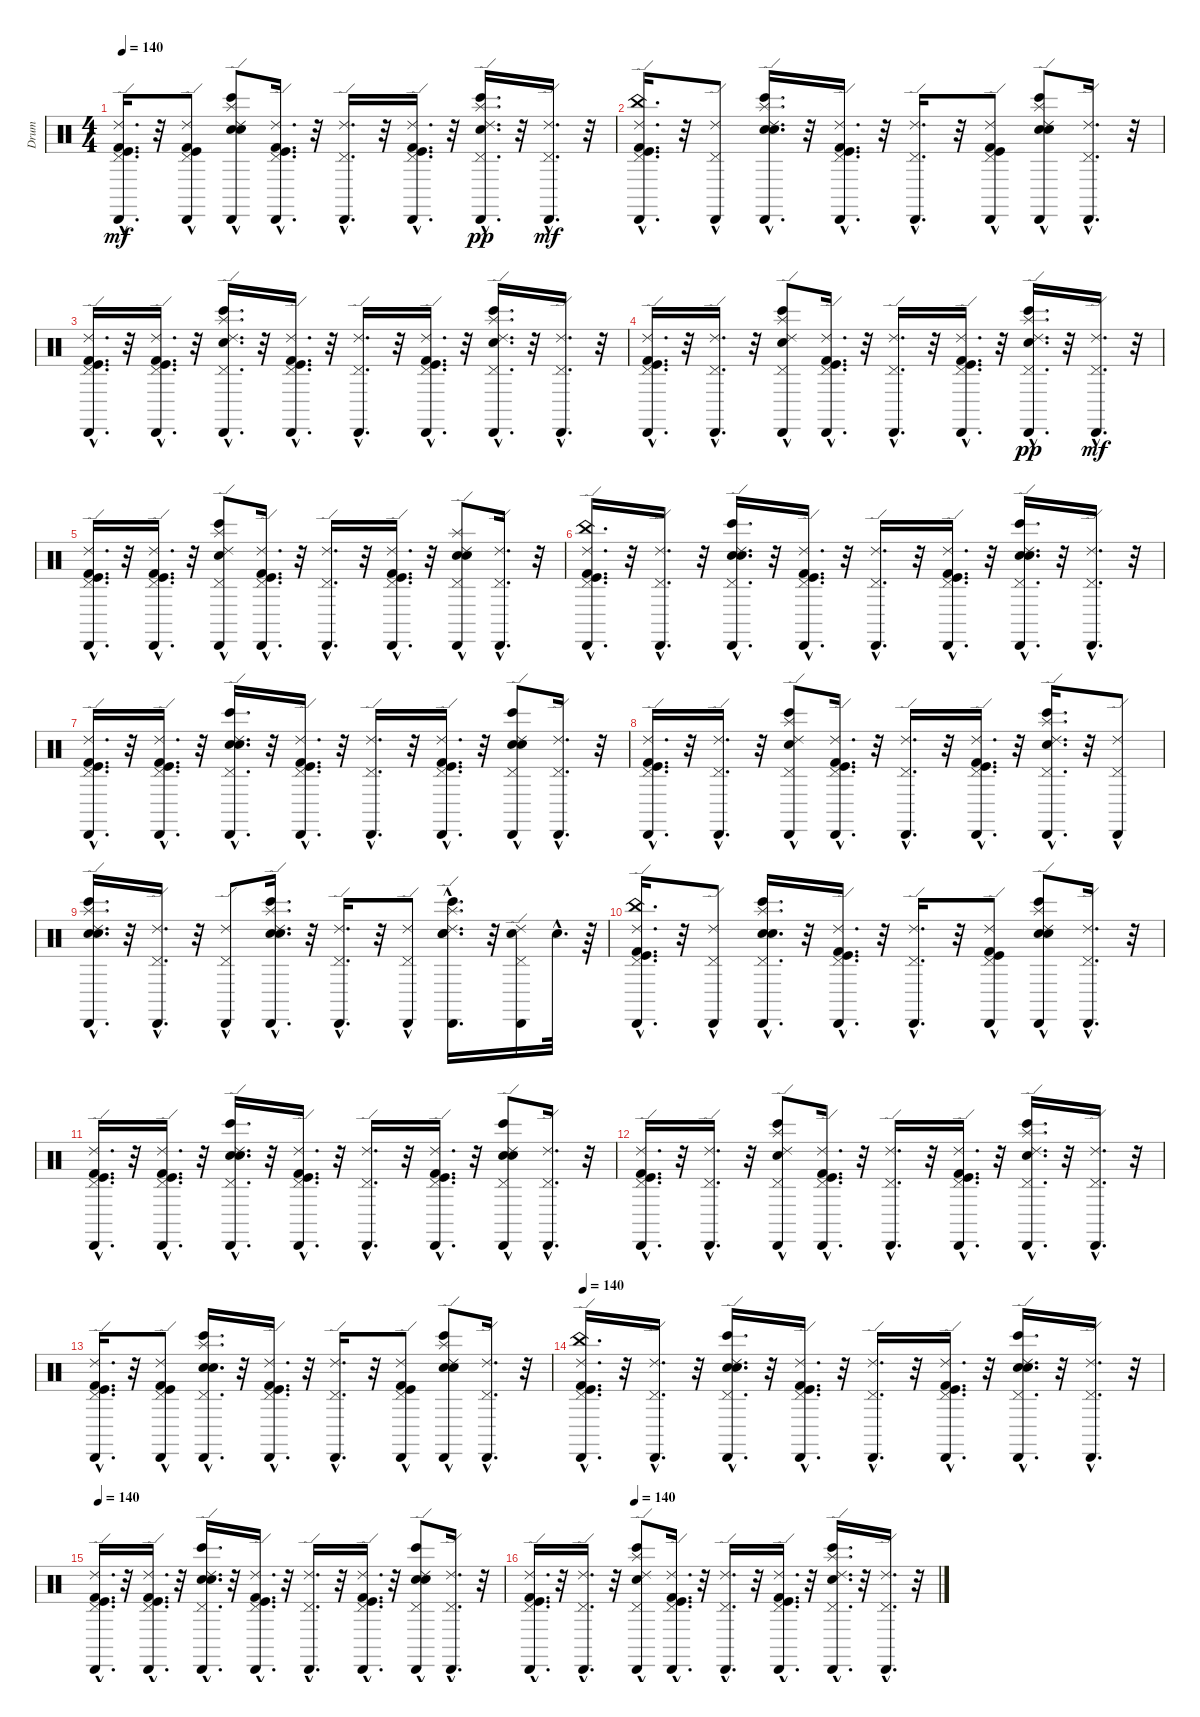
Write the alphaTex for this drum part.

\track ("Drum" "Drum") {instrument percussion}
\staff {score}
\articulation defaults
\ts (4 4)
\tempo 140
\clef neutral
\ks c
("Ride (edge) 2"{hac} "Kick (hit) 2"{hac} "Pedal Hi-Hat (hit)"{hac} "Cabasa (hit)"{hac} "Kick (hit)"{hac}).16{d dy mf} r.32 ("Cabasa (hit)"{hac} "Ride (edge) 2"{hac} "Kick (hit) 2"{hac} "Kick (hit)"{hac} "Pedal Hi-Hat (hit)"{hac}).8 ("Bongo High (hit)"{hac} "Splash (hit)"{hac} "Electric Snare (hit)"{hac} "Ride (edge) 2"{hac} "Cabasa (hit)"{hac} "Snare (hit) 2").8 ("Kick (hit) 2"{hac} "Cabasa (hit)"{hac} "Ride (edge) 2"{hac} "Pedal Hi-Hat (hit)"{hac} "Kick (hit)"{hac}).16{d} r.32 ("Pedal Hi-Hat (hit)"{hac} "Cabasa (hit)"{hac} "Ride (edge) 2"{hac}).16{d} r.32 ("Cabasa (hit)"{hac} "Kick (hit) 2"{hac} "Pedal Hi-Hat (hit)"{hac} "Ride (edge) 2"{hac} "Kick (hit)"{hac}).16{d} r.32 ("Electric Snare (hit)"{hac} "Cabasa (hit)"{hac} "Bongo High (hit)"{hac} "Pedal Hi-Hat (hit)"{hac} "Ride (edge) 2"{hac} "Splash (hit)"{hac}).16{d dy pp} r.32 ("Cabasa (hit)"{hac} "Pedal Hi-Hat (hit)"{hac} "Ride (edge) 2"{hac}).16{d dy mf} r.32 |
("China (hit)"{hac} "Cabasa (hit)"{hac} "Ride (edge) 2"{hac} "Kick (hit) 2"{hac} "Kick (hit)"{hac} "Pedal Hi-Hat (hit)"{hac}).16{d} r.32 ("Cabasa (hit)"{hac} "Ride (edge) 2"{hac} "Pedal Hi-Hat (hit)"{hac}).8 ("Splash (hit)"{hac} "Bongo High (hit)"{hac} "Electric Snare (hit)"{hac} "Cabasa (hit)"{hac} "Ride (edge) 2"{hac} "Snare (hit) 2"{hac}).16{d} r.32 ("Cabasa (hit)"{hac} "Ride (edge) 2"{hac} "Kick (hit) 2"{hac} "Kick (hit)"{hac} "Pedal Hi-Hat (hit)"{hac}).16{d} r.32 ("Cabasa (hit)"{hac} "Ride (edge) 2"{hac} "Pedal Hi-Hat (hit)"{hac}).16{d} r.32 ("Cabasa (hit)"{hac} "Ride (edge) 2"{hac} "Kick (hit) 2"{hac} "Kick (hit)"{hac} "Pedal Hi-Hat (hit)"{hac}).8 ("Splash (hit)"{hac} "Bongo High (hit)"{hac} "Electric Snare (hit)"{hac} "Cabasa (hit)"{hac} "Ride (edge) 2"{hac} "Snare (hit) 2").8 ("Cabasa (hit)"{hac} "Ride (edge) 2"{hac} "Pedal Hi-Hat (hit)"{hac}).16{d} r.32 |
("Cabasa (hit)"{hac} "Ride (edge) 2"{hac} "Kick (hit) 2"{hac} "Pedal Hi-Hat (hit)"{hac} "Kick (hit)"{hac}).16{d} r.32 ("Cabasa (hit)"{hac} "Ride (edge) 2"{hac} "Kick (hit) 2"{hac} "Kick (hit)"{hac} "Pedal Hi-Hat (hit)"{hac}).16{d} r.32 ("Splash (hit)"{hac} "Electric Snare (hit)"{hac} "Bongo High (hit)"{hac} "Cabasa (hit)"{hac} "Ride (edge) 2"{hac} "Pedal Hi-Hat (hit)"{hac}).16{d} r.32 ("Cabasa (hit)"{hac} "Ride (edge) 2"{hac} "Kick (hit) 2"{hac} "Pedal Hi-Hat (hit)"{hac} "Kick (hit)"{hac}).16{d} r.32 ("Cabasa (hit)"{hac} "Ride (edge) 2"{hac} "Pedal Hi-Hat (hit)"{hac}).16{d} r.32 ("Cabasa (hit)"{hac} "Ride (edge) 2"{hac} "Kick (hit) 2"{hac} "Pedal Hi-Hat (hit)"{hac} "Kick (hit)"{hac}).16{d} r.32 ("Splash (hit)"{hac} "Electric Snare (hit)"{hac} "Bongo High (hit)"{hac} "Cabasa (hit)"{hac} "Ride (edge) 2"{hac} "Pedal Hi-Hat (hit)"{hac}).16{d} r.32 ("Cabasa (hit)"{hac} "Ride (edge) 2"{hac} "Pedal Hi-Hat (hit)"{hac}).16{d} r.32 |
("Kick (hit)"{hac} "Pedal Hi-Hat (hit)"{hac} "Kick (hit) 2"{hac} "Ride (edge) 2"{hac} "Cabasa (hit)"{hac}).16{d} r.32 ("Ride (edge) 2"{hac} "Pedal Hi-Hat (hit)"{hac} "Cabasa (hit)"{hac}).16{d} r.32 ("Electric Snare (hit)" "Bongo High (hit)"{hac} "Ride (edge) 2"{hac} "Pedal Hi-Hat (hit)"{hac} "Splash (hit)"{hac} "Cabasa (hit)"{hac}).8 ("Pedal Hi-Hat (hit)"{hac} "Kick (hit)"{hac} "Kick (hit) 2"{hac} "Ride (edge) 2"{hac} "Cabasa (hit)"{hac}).16{d} r.32 ("Cabasa (hit)"{hac} "Pedal Hi-Hat (hit)"{hac} "Ride (edge) 2"{hac}).16{d} r.32 ("Kick (hit)"{hac} "Kick (hit) 2"{hac} "Cabasa (hit)"{hac} "Pedal Hi-Hat (hit)"{hac} "Ride (edge) 2"{hac}).16{d} r.32 ("Snare (hit) 2"{hac} "Cabasa (hit)"{hac} "Pedal Hi-Hat (hit)"{hac} "Ride (edge) 2"{hac} "Bongo High (hit)"{hac} "Splash (hit)"{hac}).16{d dy pp} r.32 ("Pedal Hi-Hat (hit)"{hac} "Cabasa (hit)"{hac} "Ride (edge) 2"{hac}).16{d dy mf} r.32 |
("Pedal Hi-Hat (hit)"{hac} "Kick (hit)"{hac} "Cabasa (hit)"{hac} "Kick (hit) 2"{hac} "Ride (edge) 2"{hac}).16{d} r.32 ("Kick (hit) 2"{hac} "Kick (hit)"{hac} "Pedal Hi-Hat (hit)"{hac} "Ride (edge) 2"{hac} "Cabasa (hit)"{hac}).16{d} r.32 ("Ride (edge) 2"{hac} "Cabasa (hit)"{hac} "Pedal Hi-Hat (hit)"{hac} "Snare (hit) 2"{hac} "Splash (hit)"{hac} "Bongo High (hit)").8 ("Pedal Hi-Hat (hit)"{hac} "Kick (hit)"{hac} "Cabasa (hit)"{hac} "Kick (hit) 2"{hac} "Ride (edge) 2"{hac}).16{d} r.32 ("Pedal Hi-Hat (hit)"{hac} "Ride (edge) 2"{hac} "Cabasa (hit)"{hac}).16{d} r.32 ("Kick (hit) 2"{hac} "Pedal Hi-Hat (hit)"{hac} "Kick (hit)"{hac} "Ride (edge) 2"{hac} "Cabasa (hit)"{hac}).16{d} r.32 ("Pedal Hi-Hat (hit)"{hac} "Ride (edge) 2"{hac} "Snare (hit) 2"{hac} "Splash (hit)" "Cabasa (hit)"{hac} "Electric Snare (hit)"{hac}).8 ("Pedal Hi-Hat (hit)"{hac} "Ride (edge) 2"{hac} "Cabasa (hit)"{hac}).16{d} r.32 |
("Pedal Hi-Hat (hit)"{hac} "Kick (hit)"{hac} "Kick (hit) 2"{hac} "Ride (edge) 2"{hac} "Cabasa (hit)"{hac} "China (hit)"{hac}).16{d} r.32 ("Pedal Hi-Hat (hit)"{hac} "Ride (edge) 2"{hac} "Cabasa (hit)"{hac}).16{d} r.32 ("Pedal Hi-Hat (hit)"{hac} "Snare (hit) 2"{hac} "Ride (edge) 2"{hac} "Cabasa (hit)"{hac} "Electric Snare (hit)"{hac} "Bongo High (hit)"{hac}).16{d} r.32 ("Pedal Hi-Hat (hit)"{hac} "Kick (hit)"{hac} "Kick (hit) 2"{hac} "Ride (edge) 2"{hac} "Cabasa (hit)"{hac}).16{d} r.32 ("Pedal Hi-Hat (hit)"{hac} "Ride (edge) 2"{hac} "Cabasa (hit)"{hac}).16{d} r.32 ("Pedal Hi-Hat (hit)"{hac} "Kick (hit)"{hac} "Kick (hit) 2"{hac} "Ride (edge) 2"{hac} "Cabasa (hit)"{hac}).16{d} r.32 ("Pedal Hi-Hat (hit)"{hac} "Snare (hit) 2"{hac} "Ride (edge) 2"{hac} "Cabasa (hit)"{hac} "Electric Snare (hit)"{hac} "Bongo High (hit)"{hac}).16{d} r.32 ("Pedal Hi-Hat (hit)"{hac} "Ride (edge) 2"{hac} "Cabasa (hit)"{hac}).16{d} r.32 |
("Kick (hit)"{hac} "Pedal Hi-Hat (hit)"{hac} "Kick (hit) 2"{hac} "Ride (edge) 2"{hac} "Cabasa (hit)"{hac}).16{d} r.32 ("Pedal Hi-Hat (hit)"{hac} "Kick (hit)"{hac} "Kick (hit) 2"{hac} "Ride (edge) 2"{hac} "Cabasa (hit)"{hac}).16{d} r.32 ("Snare (hit) 2"{hac} "Pedal Hi-Hat (hit)"{hac} "Ride (edge) 2"{hac} "Cabasa (hit)"{hac} "Bongo High (hit)"{hac} "Electric Snare (hit)"{hac}).16{d} r.32 ("Kick (hit)"{hac} "Pedal Hi-Hat (hit)"{hac} "Kick (hit) 2"{hac} "Ride (edge) 2"{hac} "Cabasa (hit)"{hac}).16{d} r.32 ("Pedal Hi-Hat (hit)"{hac} "Ride (edge) 2"{hac} "Cabasa (hit)"{hac}).16{d} r.32 ("Kick (hit)"{hac} "Pedal Hi-Hat (hit)"{hac} "Kick (hit) 2"{hac} "Ride (edge) 2"{hac} "Cabasa (hit)"{hac}).16{d} r.32 ("Snare (hit) 2"{hac} "Pedal Hi-Hat (hit)"{hac} "Ride (edge) 2"{hac} "Cabasa (hit)"{hac} "Bongo High (hit)"{hac} "Electric Snare (hit)").8 ("Pedal Hi-Hat (hit)"{hac} "Ride (edge) 2"{hac} "Cabasa (hit)"{hac}).16{d} r.32 |
("Cabasa (hit)"{hac} "Ride (edge) 2"{hac} "Kick (hit) 2"{hac} "Pedal Hi-Hat (hit)"{hac} "Kick (hit)"{hac}).16{d} r.32 ("Cabasa (hit)"{hac} "Pedal Hi-Hat (hit)"{hac} "Ride (edge) 2"{hac}).16{d} r.32 ("Snare (hit) 2" "Cabasa (hit)"{hac} "Splash (hit)"{hac} "Pedal Hi-Hat (hit)"{hac} "Ride (edge) 2"{hac} "Bongo High (hit)"{hac}).8 ("Cabasa (hit)"{hac} "Ride (edge) 2"{hac} "Kick (hit) 2"{hac} "Kick (hit)"{hac} "Pedal Hi-Hat (hit)"{hac}).16{d} r.32 ("Ride (edge) 2"{hac} "Pedal Hi-Hat (hit)"{hac} "Cabasa (hit)"{hac}).16{d} r.32 ("Ride (edge) 2"{hac} "Pedal Hi-Hat (hit)"{hac} "Cabasa (hit)"{hac} "Kick (hit) 2"{hac} "Kick (hit)"{hac}).16{d} r.32 ("Electric Snare (hit)"{hac} "Splash (hit)"{hac} "Bongo High (hit)"{hac} "Ride (edge) 2"{hac} "Pedal Hi-Hat (hit)"{hac} "Cabasa (hit)"{hac}).16{d} r.32 ("Ride (edge) 2"{hac} "Cabasa (hit)"{hac} "Pedal Hi-Hat (hit)"{hac}).8 |
("Bongo High (hit)"{hac} "Splash (hit)"{hac} "Snare (hit) 2"{hac} "Electric Snare (hit)"{hac} "Ride (edge) 2"{hac} "Cabasa (hit)"{hac}).16{d} r.32 ("Cabasa (hit)"{hac} "Ride (edge) 2"{hac} "Pedal Hi-Hat (hit)"{hac}).16{d} r.32 ("Pedal Hi-Hat (hit)"{hac} "Cabasa (hit)"{hac} "Ride (edge) 2"{hac}).8 ("Bongo High (hit)"{hac} "Splash (hit)"{hac} "Snare (hit) 2"{hac} "Electric Snare (hit)"{hac} "Ride (edge) 2"{hac} "Cabasa (hit)"{hac}).16{d} r.32 ("Cabasa (hit)"{hac} "Ride (edge) 2"{hac} "Pedal Hi-Hat (hit)"{hac}).16{d} r.32 ("Cabasa (hit)"{hac} "Ride (edge) 2"{hac} "Pedal Hi-Hat (hit)"{hac}).8 ("Snare (hit) 2"{hac} "Electric Snare (hit)"{hac} "Bongo High (hit)"{hac} "Cabasa (hit)"{hac} "Splash (hit)"{hac} "Ride (edge) 2"{hac}).16{d} r.32 ("Snare (hit) 2" "Cabasa (hit)" "Ride (edge) 2" "Pedal Hi-Hat (hit)").16 "Snare (hit) 2"{hac}.32{d} r.64 |
("Kick (hit) 2"{hac} "Kick (hit)"{hac} "Ride (edge) 2"{hac} "Pedal Hi-Hat (hit)"{hac} "Cabasa (hit)"{hac} "China (hit)"{hac}).16{d} r.32 ("Cabasa (hit)"{hac} "Pedal Hi-Hat (hit)"{hac} "Ride (edge) 2"{hac}).8 ("Bongo High (hit)"{hac} "Splash (hit)"{hac} "Electric Snare (hit)"{hac} "Pedal Hi-Hat (hit)"{hac} "Snare (hit) 2"{hac} "Cabasa (hit)"{hac}).16{d} r.32 ("Ride (edge) 2"{hac} "Cabasa (hit)"{hac} "Kick (hit) 2"{hac} "Kick (hit)"{hac} "Pedal Hi-Hat (hit)"{hac}).16{d} r.32 ("Ride (edge) 2"{hac} "Cabasa (hit)"{hac} "Pedal Hi-Hat (hit)"{hac}).16{d} r.32 ("Kick (hit) 2"{hac} "Ride (edge) 2"{hac} "Kick (hit)"{hac} "Cabasa (hit)"{hac} "Pedal Hi-Hat (hit)"{hac}).8 ("Cabasa (hit)"{hac} "Electric Snare (hit)"{hac} "Ride (edge) 2"{hac} "Splash (hit)" "Bongo High (hit)"{hac} "Snare (hit) 2"{hac}).8 ("Ride (edge) 2"{hac} "Pedal Hi-Hat (hit)"{hac} "Cabasa (hit)"{hac}).16{d} r.32 |
("Kick (hit)"{hac} "Pedal Hi-Hat (hit)"{hac} "Kick (hit) 2"{hac} "Ride (edge) 2"{hac} "Cabasa (hit)"{hac}).16{d} r.32 ("Pedal Hi-Hat (hit)"{hac} "Kick (hit)"{hac} "Kick (hit) 2"{hac} "Ride (edge) 2"{hac} "Cabasa (hit)"{hac}).16{d} r.32 ("Snare (hit) 2"{hac} "Pedal Hi-Hat (hit)"{hac} "Ride (edge) 2"{hac} "Cabasa (hit)"{hac} "Bongo High (hit)"{hac} "Electric Snare (hit)"{hac}).16{d} r.32 ("Kick (hit)"{hac} "Pedal Hi-Hat (hit)"{hac} "Kick (hit) 2"{hac} "Ride (edge) 2"{hac} "Cabasa (hit)"{hac}).16{d} r.32 ("Pedal Hi-Hat (hit)"{hac} "Ride (edge) 2"{hac} "Cabasa (hit)"{hac}).16{d} r.32 ("Kick (hit)"{hac} "Pedal Hi-Hat (hit)"{hac} "Kick (hit) 2"{hac} "Ride (edge) 2"{hac} "Cabasa (hit)"{hac}).16{d} r.32 ("Snare (hit) 2"{hac} "Pedal Hi-Hat (hit)"{hac} "Ride (edge) 2"{hac} "Cabasa (hit)"{hac} "Bongo High (hit)"{hac} "Electric Snare (hit)").8 ("Pedal Hi-Hat (hit)"{hac} "Ride (edge) 2"{hac} "Cabasa (hit)"{hac}).16{d} r.32 |
("Cabasa (hit)"{hac} "Ride (edge) 2"{hac} "Kick (hit) 2"{hac} "Pedal Hi-Hat (hit)"{hac} "Kick (hit)"{hac}).16{d} r.32 ("Cabasa (hit)"{hac} "Pedal Hi-Hat (hit)"{hac} "Ride (edge) 2"{hac}).16{d} r.32 ("Snare (hit) 2" "Cabasa (hit)"{hac} "Splash (hit)"{hac} "Pedal Hi-Hat (hit)"{hac} "Ride (edge) 2"{hac} "Bongo High (hit)"{hac}).8 ("Cabasa (hit)"{hac} "Ride (edge) 2"{hac} "Kick (hit) 2"{hac} "Kick (hit)"{hac} "Pedal Hi-Hat (hit)"{hac}).16{d} r.32 ("Ride (edge) 2"{hac} "Pedal Hi-Hat (hit)"{hac} "Cabasa (hit)"{hac}).16{d} r.32 ("Ride (edge) 2"{hac} "Pedal Hi-Hat (hit)"{hac} "Cabasa (hit)"{hac} "Kick (hit) 2"{hac} "Kick (hit)"{hac}).16{d} r.32 ("Electric Snare (hit)"{hac} "Splash (hit)"{hac} "Bongo High (hit)"{hac} "Ride (edge) 2"{hac} "Pedal Hi-Hat (hit)"{hac} "Cabasa (hit)"{hac}).16{d} r.32 ("Ride (edge) 2"{hac} "Cabasa (hit)"{hac} "Pedal Hi-Hat (hit)"{hac}).16{d} r.32 |
("Ride (edge) 2"{hac} "Cabasa (hit)"{hac} "Kick (hit) 2"{hac} "Pedal Hi-Hat (hit)"{hac} "Kick (hit)"{hac}).16{d} r.32 ("Pedal Hi-Hat (hit)"{hac} "Ride (edge) 2"{hac} "Cabasa (hit)"{hac} "Kick (hit) 2"{hac} "Kick (hit)"{hac}).8 ("Pedal Hi-Hat (hit)"{hac} "Snare (hit) 2"{hac} "Bongo High (hit)"{hac} "Splash (hit)"{hac} "Electric Snare (hit)"{hac} "Cabasa (hit)"{hac}).16{d} r.32 ("Kick (hit) 2"{hac} "Kick (hit)"{hac} "Cabasa (hit)"{hac} "Ride (edge) 2"{hac} "Pedal Hi-Hat (hit)"{hac}).16{d} r.32 ("Cabasa (hit)"{hac} "Pedal Hi-Hat (hit)"{hac} "Ride (edge) 2"{hac}).16{d} r.32 ("Pedal Hi-Hat (hit)"{hac} "Kick (hit)"{hac} "Ride (edge) 2"{hac} "Cabasa (hit)"{hac} "Kick (hit) 2"{hac}).8 ("Electric Snare (hit)"{hac} "Snare (hit) 2"{hac} "Splash (hit)" "Cabasa (hit)"{hac} "Bongo High (hit)"{hac} "Ride (edge) 2"{hac}).8 ("Cabasa (hit)"{hac} "Pedal Hi-Hat (hit)"{hac} "Ride (edge) 2"{hac}).16{d} r.32 |
\tempo 140
("Pedal Hi-Hat (hit)"{hac} "Kick (hit)"{hac} "Kick (hit) 2"{hac} "Ride (edge) 2"{hac} "Cabasa (hit)"{hac} "China (hit)"{hac}).16{d} r.32 ("Pedal Hi-Hat (hit)"{hac} "Ride (edge) 2"{hac} "Cabasa (hit)"{hac}).16{d} r.32 ("Pedal Hi-Hat (hit)"{hac} "Snare (hit) 2"{hac} "Ride (edge) 2"{hac} "Cabasa (hit)"{hac} "Electric Snare (hit)"{hac} "Bongo High (hit)"{hac}).16{d} r.32 ("Pedal Hi-Hat (hit)"{hac} "Kick (hit)"{hac} "Kick (hit) 2"{hac} "Ride (edge) 2"{hac} "Cabasa (hit)"{hac}).16{d} r.32 ("Pedal Hi-Hat (hit)"{hac} "Ride (edge) 2"{hac} "Cabasa (hit)"{hac}).16{d} r.32 ("Pedal Hi-Hat (hit)"{hac} "Kick (hit)"{hac} "Kick (hit) 2"{hac} "Ride (edge) 2"{hac} "Cabasa (hit)"{hac}).16{d} r.32 ("Pedal Hi-Hat (hit)"{hac} "Snare (hit) 2"{hac} "Ride (edge) 2"{hac} "Cabasa (hit)"{hac} "Electric Snare (hit)"{hac} "Bongo High (hit)"{hac}).16{d} r.32 ("Pedal Hi-Hat (hit)"{hac} "Ride (edge) 2"{hac} "Cabasa (hit)"{hac}).16{d} r.32 |
\tempo 140
("Kick (hit)"{hac} "Pedal Hi-Hat (hit)"{hac} "Kick (hit) 2"{hac} "Ride (edge) 2"{hac} "Cabasa (hit)"{hac}).16{d} r.32 ("Pedal Hi-Hat (hit)"{hac} "Kick (hit)"{hac} "Kick (hit) 2"{hac} "Ride (edge) 2"{hac} "Cabasa (hit)"{hac}).16{d} r.32 ("Snare (hit) 2"{hac} "Pedal Hi-Hat (hit)"{hac} "Ride (edge) 2"{hac} "Cabasa (hit)"{hac} "Bongo High (hit)"{hac} "Electric Snare (hit)"{hac}).16{d} r.32 ("Kick (hit)"{hac} "Pedal Hi-Hat (hit)"{hac} "Kick (hit) 2"{hac} "Ride (edge) 2"{hac} "Cabasa (hit)"{hac}).16{d} r.32 ("Pedal Hi-Hat (hit)"{hac} "Ride (edge) 2"{hac} "Cabasa (hit)"{hac}).16{d} r.32 ("Kick (hit)"{hac} "Pedal Hi-Hat (hit)"{hac} "Kick (hit) 2"{hac} "Ride (edge) 2"{hac} "Cabasa (hit)"{hac}).16{d} r.32 ("Snare (hit) 2"{hac} "Pedal Hi-Hat (hit)"{hac} "Ride (edge) 2"{hac} "Cabasa (hit)"{hac} "Bongo High (hit)"{hac} "Electric Snare (hit)").8 ("Pedal Hi-Hat (hit)"{hac} "Ride (edge) 2"{hac} "Cabasa (hit)"{hac}).16{d} r.32 |
\tempo (140 0.25)
("Cabasa (hit)"{hac} "Ride (edge) 2"{hac} "Kick (hit) 2"{hac} "Pedal Hi-Hat (hit)"{hac} "Kick (hit)"{hac}).16{d} r.32 ("Cabasa (hit)"{hac} "Pedal Hi-Hat (hit)"{hac} "Ride (edge) 2"{hac}).16{d} r.32 ("Snare (hit) 2" "Cabasa (hit)"{hac} "Splash (hit)"{hac} "Pedal Hi-Hat (hit)"{hac} "Ride (edge) 2"{hac} "Bongo High (hit)"{hac}).8 ("Cabasa (hit)"{hac} "Ride (edge) 2"{hac} "Kick (hit) 2"{hac} "Kick (hit)"{hac} "Pedal Hi-Hat (hit)"{hac}).16{d} r.32 ("Ride (edge) 2"{hac} "Pedal Hi-Hat (hit)"{hac} "Cabasa (hit)"{hac}).16{d} r.32 ("Ride (edge) 2"{hac} "Pedal Hi-Hat (hit)"{hac} "Cabasa (hit)"{hac} "Kick (hit) 2"{hac} "Kick (hit)"{hac}).16{d} r.32 ("Electric Snare (hit)"{hac} "Splash (hit)"{hac} "Bongo High (hit)"{hac} "Ride (edge) 2"{hac} "Pedal Hi-Hat (hit)"{hac} "Cabasa (hit)"{hac}).16{d} r.32 ("Ride (edge) 2"{hac} "Cabasa (hit)"{hac} "Pedal Hi-Hat (hit)"{hac}).16{d} r.32
